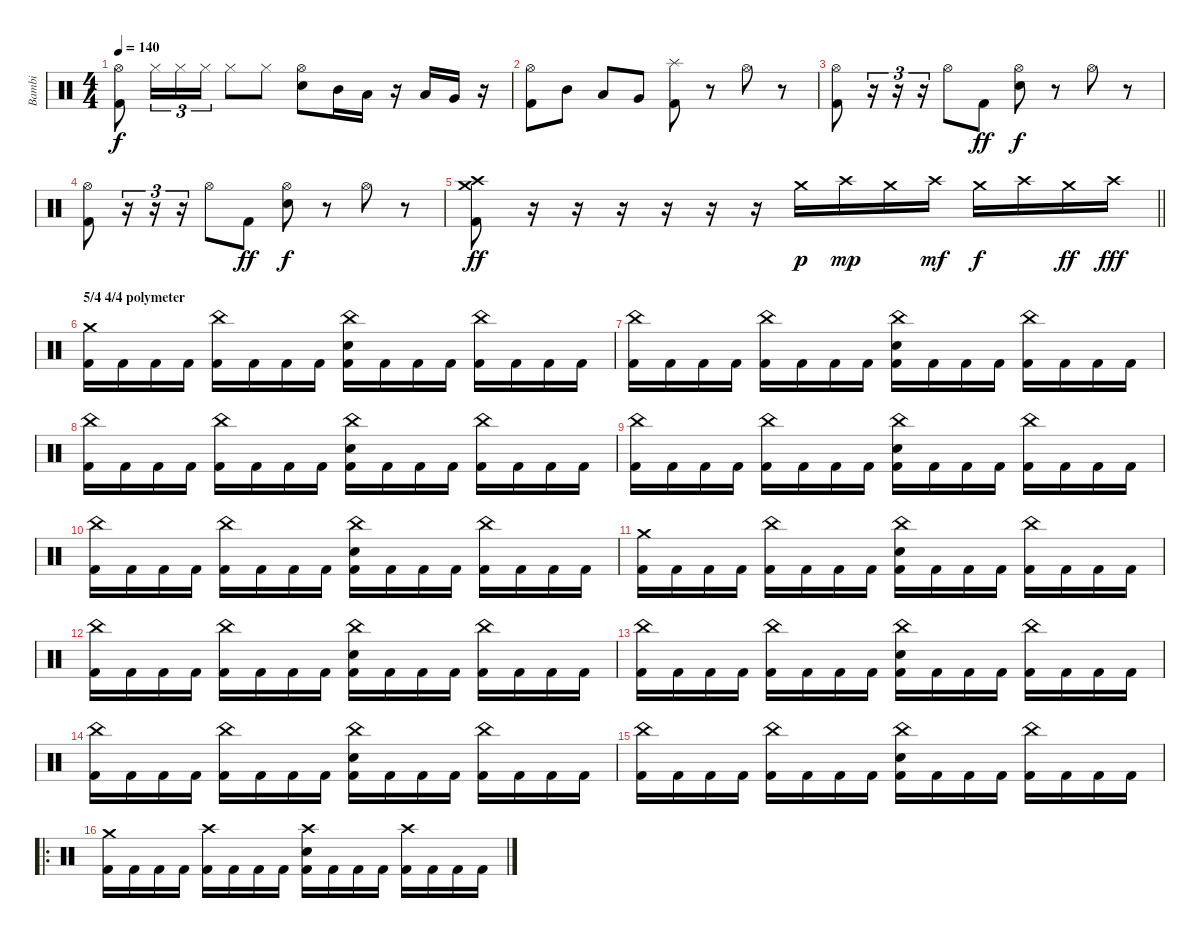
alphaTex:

\track ("Bambi" "Bambi") {instrument percussion}
\staff {score}
\articulation defaults
\ts (4 4)
\tempo 140
\clef neutral
\ks c
("Hi-Hat (open)" "Kick (hit) 2").8{dy f} "Hi-Hat (closed)".16{tu (3 2)} "Hi-Hat (closed)".16{tu (3 2)} "Hi-Hat (closed)".16{tu (3 2)} "Hi-Hat (closed)".8 "Hi-Hat (closed)".8 ("Hi-Hat (open)" "Electric Snare (hit)").8 "Mid Tom (hit)".16 "Low Tom (hit)".16 r.16 "Low Tom (hit)".16 "Very Low Tom (hit)".16 r.16 |
("Hi-Hat (open)" "Kick (hit) 2").8 "Mid Tom (hit)".8 "Low Tom (hit)".8 "Very Low Tom (hit)".8 ("Splash (hit)" "Kick (hit) 2").8 r.8 "Hi-Hat (open)".8 r.8 |
("Hi-Hat (open)" "Kick (hit) 2").8 r.16{tu (3 2)} r.16{tu (3 2)} r.16{tu (3 2)} "Hi-Hat (open)".8 "Kick (hit) 2".8{dy ff} ("Hi-Hat (open)" "Electric Snare (hit)").8{dy f} r.8 "Hi-Hat (open)".8 r.8 |
("Hi-Hat (open)" "Kick (hit) 2").8 r.16{tu (3 2)} r.16{tu (3 2)} r.16{tu (3 2)} "Hi-Hat (open)".8 "Kick (hit) 2".8{dy ff} ("Hi-Hat (open)" "Electric Snare (hit)").8{dy f} r.8 "Hi-Hat (open)".8 r.8 |
\barLineRight lightlight
("Crash high (hit)" "Crash medium (hit)" "Kick (hit) 2").8{dy ff} r.16 r.16 r.16 r.16 r.16 r.16 "Crash medium (hit)".16{dy p} "Crash high (hit)".16{dy mp} "Crash medium (hit)".16 "Crash high (hit)".16{dy mf} "Crash medium (hit)".16{dy f} "Crash high (hit)".16 "Crash medium (hit)".16{dy ff} "Crash high (hit)".16{dy fff} |
\section ("" "5/4 4/4 polymeter")
("Crash medium (hit)" "Kick (hit) 2").16 "Kick (hit) 2".16 "Kick (hit) 2".16 "Kick (hit) 2".16 ("China (hit)" "Kick (hit) 2").16 "Kick (hit) 2".16 "Kick (hit) 2".16 "Kick (hit) 2".16 ("Electric Snare (hit)" "China (hit)" "Kick (hit) 2").16 "Kick (hit) 2".16 "Kick (hit) 2".16 "Kick (hit) 2".16 ("China (hit)" "Kick (hit) 2").16 "Kick (hit) 2".16 "Kick (hit) 2".16 "Kick (hit) 2".16 |
("China (hit)" "Kick (hit) 2").16 "Kick (hit) 2".16 "Kick (hit) 2".16 "Kick (hit) 2".16 ("China (hit)" "Kick (hit) 2").16 "Kick (hit) 2".16 "Kick (hit) 2".16 "Kick (hit) 2".16 ("Electric Snare (hit)" "China (hit)" "Kick (hit) 2").16 "Kick (hit) 2".16 "Kick (hit) 2".16 "Kick (hit) 2".16 ("China (hit)" "Kick (hit) 2").16 "Kick (hit) 2".16 "Kick (hit) 2".16 "Kick (hit) 2".16 |
("China (hit)" "Kick (hit) 2").16 "Kick (hit) 2".16 "Kick (hit) 2".16 "Kick (hit) 2".16 ("China (hit)" "Kick (hit) 2").16 "Kick (hit) 2".16 "Kick (hit) 2".16 "Kick (hit) 2".16 ("Electric Snare (hit)" "China (hit)" "Kick (hit) 2").16 "Kick (hit) 2".16 "Kick (hit) 2".16 "Kick (hit) 2".16 ("China (hit)" "Kick (hit) 2").16 "Kick (hit) 2".16 "Kick (hit) 2".16 "Kick (hit) 2".16 |
("China (hit)" "Kick (hit) 2").16 "Kick (hit) 2".16 "Kick (hit) 2".16 "Kick (hit) 2".16 ("China (hit)" "Kick (hit) 2").16 "Kick (hit) 2".16 "Kick (hit) 2".16 "Kick (hit) 2".16 ("Electric Snare (hit)" "China (hit)" "Kick (hit) 2").16 "Kick (hit) 2".16 "Kick (hit) 2".16 "Kick (hit) 2".16 ("China (hit)" "Kick (hit) 2").16 "Kick (hit) 2".16 "Kick (hit) 2".16 "Kick (hit) 2".16 |
("China (hit)" "Kick (hit) 2").16 "Kick (hit) 2".16 "Kick (hit) 2".16 "Kick (hit) 2".16 ("China (hit)" "Kick (hit) 2").16 "Kick (hit) 2".16 "Kick (hit) 2".16 "Kick (hit) 2".16 ("Electric Snare (hit)" "China (hit)" "Kick (hit) 2").16 "Kick (hit) 2".16 "Kick (hit) 2".16 "Kick (hit) 2".16 ("China (hit)" "Kick (hit) 2").16 "Kick (hit) 2".16 "Kick (hit) 2".16 "Kick (hit) 2".16 |
("Crash medium (hit)" "Kick (hit) 2").16 "Kick (hit) 2".16 "Kick (hit) 2".16 "Kick (hit) 2".16 ("China (hit)" "Kick (hit) 2").16 "Kick (hit) 2".16 "Kick (hit) 2".16 "Kick (hit) 2".16 ("Electric Snare (hit)" "China (hit)" "Kick (hit) 2").16 "Kick (hit) 2".16 "Kick (hit) 2".16 "Kick (hit) 2".16 ("China (hit)" "Kick (hit) 2").16 "Kick (hit) 2".16 "Kick (hit) 2".16 "Kick (hit) 2".16 |
("China (hit)" "Kick (hit) 2").16 "Kick (hit) 2".16 "Kick (hit) 2".16 "Kick (hit) 2".16 ("China (hit)" "Kick (hit) 2").16 "Kick (hit) 2".16 "Kick (hit) 2".16 "Kick (hit) 2".16 ("Electric Snare (hit)" "China (hit)" "Kick (hit) 2").16 "Kick (hit) 2".16 "Kick (hit) 2".16 "Kick (hit) 2".16 ("China (hit)" "Kick (hit) 2").16 "Kick (hit) 2".16 "Kick (hit) 2".16 "Kick (hit) 2".16 |
("China (hit)" "Kick (hit) 2").16 "Kick (hit) 2".16 "Kick (hit) 2".16 "Kick (hit) 2".16 ("China (hit)" "Kick (hit) 2").16 "Kick (hit) 2".16 "Kick (hit) 2".16 "Kick (hit) 2".16 ("Electric Snare (hit)" "China (hit)" "Kick (hit) 2").16 "Kick (hit) 2".16 "Kick (hit) 2".16 "Kick (hit) 2".16 ("China (hit)" "Kick (hit) 2").16 "Kick (hit) 2".16 "Kick (hit) 2".16 "Kick (hit) 2".16 |
("China (hit)" "Kick (hit) 2").16 "Kick (hit) 2".16 "Kick (hit) 2".16 "Kick (hit) 2".16 ("China (hit)" "Kick (hit) 2").16 "Kick (hit) 2".16 "Kick (hit) 2".16 "Kick (hit) 2".16 ("Electric Snare (hit)" "China (hit)" "Kick (hit) 2").16 "Kick (hit) 2".16 "Kick (hit) 2".16 "Kick (hit) 2".16 ("China (hit)" "Kick (hit) 2").16 "Kick (hit) 2".16 "Kick (hit) 2".16 "Kick (hit) 2".16 |
("China (hit)" "Kick (hit) 2").16 "Kick (hit) 2".16 "Kick (hit) 2".16 "Kick (hit) 2".16 ("China (hit)" "Kick (hit) 2").16 "Kick (hit) 2".16 "Kick (hit) 2".16 "Kick (hit) 2".16 ("Electric Snare (hit)" "China (hit)" "Kick (hit) 2").16 "Kick (hit) 2".16 "Kick (hit) 2".16 "Kick (hit) 2".16 ("China (hit)" "Kick (hit) 2").16 "Kick (hit) 2".16 "Kick (hit) 2".16 "Kick (hit) 2".16 |
\ro
("Crash medium (hit)" "Kick (hit) 2").16 "Kick (hit) 2".16 "Kick (hit) 2".16 "Kick (hit) 2".16 ("Crash high (hit)" "Kick (hit) 2").16 "Kick (hit) 2".16 "Kick (hit) 2".16 "Kick (hit) 2".16 ("Electric Snare (hit)" "Crash high (hit)" "Kick (hit) 2").16 "Kick (hit) 2".16 "Kick (hit) 2".16 "Kick (hit) 2".16 ("Crash high (hit)" "Kick (hit) 2").16 "Kick (hit) 2".16 "Kick (hit) 2".16 "Kick (hit) 2".16
